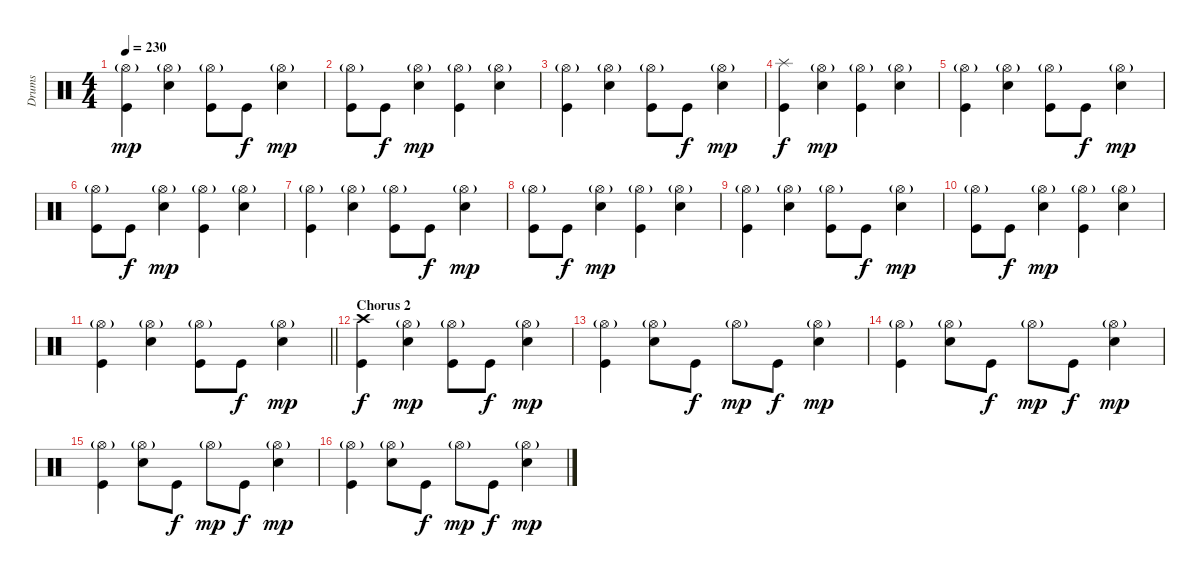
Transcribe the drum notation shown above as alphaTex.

\track ("Drums" "Drums") {instrument percussion}
\staff {score}
\articulation defaults
\ts (4 4)
\tempo 230
\clef neutral
\ks c
("Hi-Hat (open)"{g} "Kick (hit)").4{dy mp} ("Hi-Hat (open)"{g} "Snare (hit) 2").4 ("Hi-Hat (open)"{g} "Kick (hit)").8 "Kick (hit)".8{dy f} ("Hi-Hat (open)"{g} "Snare (hit) 2").4{dy mp} |
("Hi-Hat (open)"{g} "Kick (hit)").8 "Kick (hit)".8{dy f} ("Hi-Hat (open)"{g} "Snare (hit) 2").4{dy mp} ("Hi-Hat (open)"{g} "Kick (hit)").4 ("Hi-Hat (open)"{g} "Snare (hit) 2").4 |
("Hi-Hat (open)"{g} "Kick (hit)").4 ("Hi-Hat (open)"{g} "Snare (hit) 2").4 ("Hi-Hat (open)"{g} "Kick (hit)").8 "Kick (hit)".8{dy f} ("Hi-Hat (open)"{g} "Snare (hit) 2").4{dy mp} |
("Splash (hit)" "Kick (hit)").4{dy f} ("Hi-Hat (open)"{g} "Snare (hit) 2").4{dy mp} ("Hi-Hat (open)"{g} "Kick (hit)").4 ("Hi-Hat (open)"{g} "Snare (hit) 2").4 |
("Hi-Hat (open)"{g} "Kick (hit)").4 ("Hi-Hat (open)"{g} "Snare (hit) 2").4 ("Hi-Hat (open)"{g} "Kick (hit)").8 "Kick (hit)".8{dy f} ("Hi-Hat (open)"{g} "Snare (hit) 2").4{dy mp} |
("Hi-Hat (open)"{g} "Kick (hit)").8 "Kick (hit)".8{dy f} ("Hi-Hat (open)"{g} "Snare (hit) 2").4{dy mp} ("Hi-Hat (open)"{g} "Kick (hit)").4 ("Hi-Hat (open)"{g} "Snare (hit) 2").4 |
("Hi-Hat (open)"{g} "Kick (hit)").4 ("Hi-Hat (open)"{g} "Snare (hit) 2").4 ("Hi-Hat (open)"{g} "Kick (hit)").8 "Kick (hit)".8{dy f} ("Hi-Hat (open)"{g} "Snare (hit) 2").4{dy mp} |
("Hi-Hat (open)"{g} "Kick (hit)").8 "Kick (hit)".8{dy f} ("Hi-Hat (open)"{g} "Snare (hit) 2").4{dy mp} ("Hi-Hat (open)"{g} "Kick (hit)").4 ("Hi-Hat (open)"{g} "Snare (hit) 2").4 |
("Hi-Hat (open)"{g} "Kick (hit)").4 ("Hi-Hat (open)"{g} "Snare (hit) 2").4 ("Hi-Hat (open)"{g} "Kick (hit)").8 "Kick (hit)".8{dy f} ("Hi-Hat (open)"{g} "Snare (hit) 2").4{dy mp} |
("Hi-Hat (open)"{g} "Kick (hit)").8 "Kick (hit)".8{dy f} ("Hi-Hat (open)"{g} "Snare (hit) 2").4{dy mp} ("Hi-Hat (open)"{g} "Kick (hit)").4 ("Hi-Hat (open)"{g} "Snare (hit) 2").4 |
\barLineRight lightlight
("Hi-Hat (open)"{g} "Kick (hit)").4 ("Hi-Hat (open)"{g} "Snare (hit) 2").4 ("Hi-Hat (open)"{g} "Kick (hit)").8 "Kick (hit)".8{dy f} ("Hi-Hat (open)"{g} "Snare (hit) 2").4{dy mp} |
\section ("" "Chorus 2")
("Crash high (hit)" "Kick (hit)").4{dy f} ("Hi-Hat (open)"{g} "Snare (hit) 2").4{dy mp} ("Hi-Hat (open)"{g} "Kick (hit)").8 "Kick (hit)".8{dy f} ("Hi-Hat (open)"{g} "Snare (hit) 2").4{dy mp} |
("Hi-Hat (open)"{g} "Kick (hit)").4 ("Hi-Hat (open)"{g} "Snare (hit) 2").8 "Kick (hit)".8{dy f} "Hi-Hat (open)"{g}.8{dy mp} "Kick (hit)".8{dy f} ("Hi-Hat (open)"{g} "Snare (hit) 2").4{dy mp} |
("Hi-Hat (open)"{g} "Kick (hit)").4 ("Hi-Hat (open)"{g} "Snare (hit) 2").8 "Kick (hit)".8{dy f} "Hi-Hat (open)"{g}.8{dy mp} "Kick (hit)".8{dy f} ("Hi-Hat (open)"{g} "Snare (hit) 2").4{dy mp} |
("Hi-Hat (open)"{g} "Kick (hit)").4 ("Hi-Hat (open)"{g} "Snare (hit) 2").8 "Kick (hit)".8{dy f} "Hi-Hat (open)"{g}.8{dy mp} "Kick (hit)".8{dy f} ("Hi-Hat (open)"{g} "Snare (hit) 2").4{dy mp} |
("Hi-Hat (open)"{g} "Kick (hit)").4 ("Hi-Hat (open)"{g} "Snare (hit) 2").8 "Kick (hit)".8{dy f} "Hi-Hat (open)"{g}.8{dy mp} "Kick (hit)".8{dy f} ("Hi-Hat (open)"{g} "Snare (hit) 2").4{dy mp}
